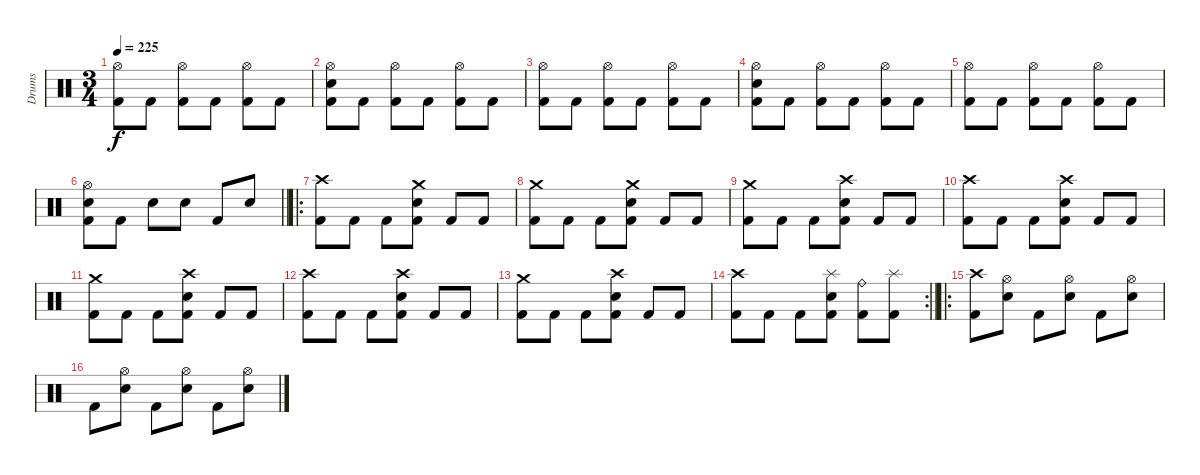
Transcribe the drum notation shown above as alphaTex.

\track ("Drums" "Drums") {instrument percussion}
\staff {score}
\articulation defaults
\ts (3 4)
\tempo 225
\clef neutral
\ks c
("Hi-Hat (open)" "Kick (hit) 2").8{dy f} "Kick (hit) 2".8 ("Hi-Hat (open)" "Kick (hit) 2").8 "Kick (hit) 2".8 ("Hi-Hat (open)" "Kick (hit) 2").8 "Kick (hit) 2".8 |
("Hi-Hat (open)" "Electric Snare (hit)" "Kick (hit) 2").8 "Kick (hit) 2".8 ("Hi-Hat (open)" "Kick (hit) 2").8 "Kick (hit) 2".8 ("Hi-Hat (open)" "Kick (hit) 2").8 "Kick (hit) 2".8 |
("Hi-Hat (open)" "Kick (hit) 2").8 "Kick (hit) 2".8 ("Hi-Hat (open)" "Kick (hit) 2").8 "Kick (hit) 2".8 ("Hi-Hat (open)" "Kick (hit) 2").8 "Kick (hit) 2".8 |
("Hi-Hat (open)" "Electric Snare (hit)" "Kick (hit) 2").8 "Kick (hit) 2".8 ("Hi-Hat (open)" "Kick (hit) 2").8 "Kick (hit) 2".8 ("Hi-Hat (open)" "Kick (hit) 2").8 "Kick (hit) 2".8 |
("Hi-Hat (open)" "Kick (hit) 2").8 "Kick (hit) 2".8 ("Hi-Hat (open)" "Kick (hit) 2").8 "Kick (hit) 2".8 ("Hi-Hat (open)" "Kick (hit) 2").8 "Kick (hit) 2".8 |
\barLineRight lightlight
("Hi-Hat (open)" "Electric Snare (hit)" "Kick (hit) 2").8 "Kick (hit) 2".8 "Electric Snare (hit)".8 "Electric Snare (hit)".8 "Kick (hit) 2".8 "Electric Snare (hit)".8 |
\ro
("Crash high (hit)" "Kick (hit) 2").8 "Kick (hit) 2".8 "Kick (hit) 2".8 ("Crash medium (hit)" "Electric Snare (hit)" "Kick (hit) 2").8 "Kick (hit) 2".8 "Kick (hit) 2".8 |
("Crash medium (hit)" "Kick (hit) 2").8 "Kick (hit) 2".8 "Kick (hit) 2".8 ("Crash medium (hit)" "Electric Snare (hit)" "Kick (hit) 2").8 "Kick (hit) 2".8 "Kick (hit) 2".8 |
("Crash medium (hit)" "Kick (hit) 2").8 "Kick (hit) 2".8 "Kick (hit) 2".8 ("Crash high (hit)" "Electric Snare (hit)" "Kick (hit) 2").8 "Kick (hit) 2".8 "Kick (hit) 2".8 |
("Crash high (hit)" "Kick (hit) 2").8 "Kick (hit) 2".8 "Kick (hit) 2".8 ("Crash high (hit)" "Electric Snare (hit)" "Kick (hit) 2").8 "Kick (hit) 2".8 "Kick (hit) 2".8 |
("Crash medium (hit)" "Kick (hit) 2").8 "Kick (hit) 2".8 "Kick (hit) 2".8 ("Crash high (hit)" "Electric Snare (hit)" "Kick (hit) 2").8 "Kick (hit) 2".8 "Kick (hit) 2".8 |
("Crash high (hit)" "Kick (hit) 2").8 "Kick (hit) 2".8 "Kick (hit) 2".8 ("Crash high (hit)" "Electric Snare (hit)" "Kick (hit) 2").8 "Kick (hit) 2".8 "Kick (hit) 2".8 |
("Crash medium (hit)" "Kick (hit) 2").8 "Kick (hit) 2".8 "Kick (hit) 2".8 ("Crash high (hit)" "Electric Snare (hit)" "Kick (hit) 2").8 "Kick (hit) 2".8 "Kick (hit) 2".8 |
\rc 2
\barLineRight lightlight
("Crash high (hit)" "Kick (hit) 2").8 "Kick (hit) 2".8 "Kick (hit) 2".8 ("Splash (hit)" "Electric Snare (hit)" "Kick (hit) 2").8 ("Ride (bell)" "Kick (hit) 2").8 ("Splash (hit)" "Kick (hit) 2").8 |
\ro
("Crash high (hit)" "Kick (hit) 2").8 ("Hi-Hat (open)" "Electric Snare (hit)").8 "Kick (hit) 2".8 ("Hi-Hat (open)" "Electric Snare (hit)").8 "Kick (hit) 2".8 ("Hi-Hat (open)" "Electric Snare (hit)").8 |
"Kick (hit) 2".8 ("Hi-Hat (open)" "Electric Snare (hit)").8 "Kick (hit) 2".8 ("Hi-Hat (open)" "Electric Snare (hit)").8 "Kick (hit) 2".8 ("Hi-Hat (open)" "Electric Snare (hit)").8
